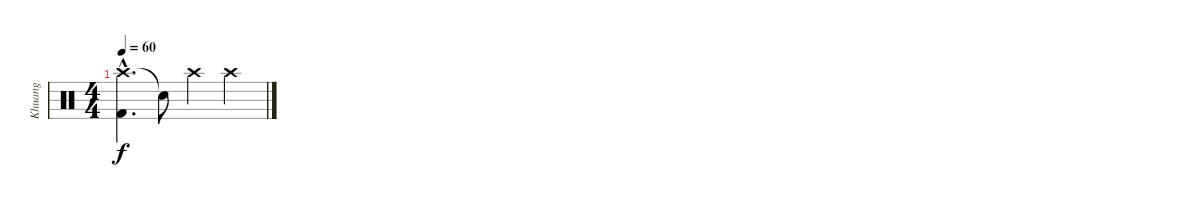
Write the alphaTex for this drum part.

\track ("Khuang" "Khuang") {instrument percussion}
\staff {score}
\articulation defaults
\ts (4 4)
\tempo 60
\clef neutral
\ks c
("Crash high (hit)"{hac} "Kick (hit) 2"{hac}).4{d dy f} "Snare (hit)"{t}.8{volume 2} "Crash high (hit)".4{volume 16} "Crash high (hit)".4
